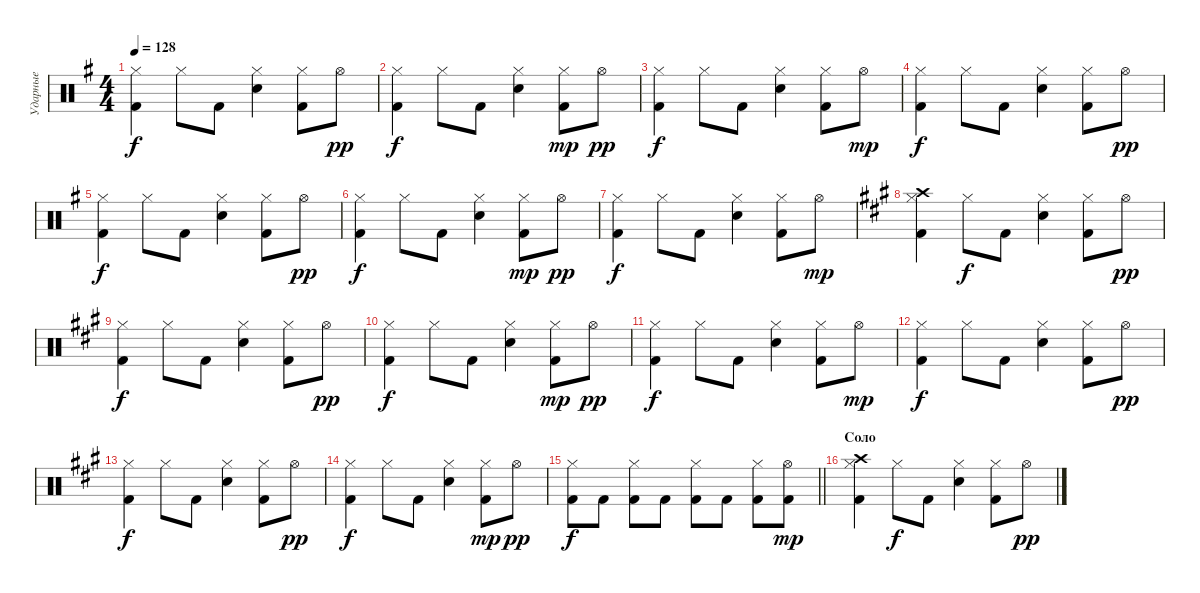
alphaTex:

\track ("Ударные" "Ударные") {instrument percussion}
\staff {score}
\articulation defaults
\ts (4 4)
\tempo 128
\clef neutral
\ks eminor
("Hi-Hat (closed)" "Kick (hit) 2").4{dy f} "Hi-Hat (closed)".8 "Kick (hit) 2".8 ("Snare (hit) 2" "Hi-Hat (closed)").4 ("Kick (hit) 2" "Hi-Hat (closed)").8 "Hi-Hat (open)".8{dy pp} |
("Hi-Hat (closed)" "Kick (hit) 2").4{dy f} "Hi-Hat (closed)".8 "Kick (hit) 2".8 ("Snare (hit) 2" "Hi-Hat (closed)").4 ("Kick (hit) 2" "Hi-Hat (closed)").8{dy mp} "Hi-Hat (open)".8{dy pp} |
("Hi-Hat (closed)" "Kick (hit) 2").4{dy f} "Hi-Hat (closed)".8 "Kick (hit) 2".8 ("Snare (hit) 2" "Hi-Hat (closed)").4 ("Kick (hit) 2" "Hi-Hat (closed)").8 "Hi-Hat (open)".8{dy mp} |
("Hi-Hat (closed)" "Kick (hit) 2").4{dy f} "Hi-Hat (closed)".8 "Kick (hit) 2".8 ("Snare (hit) 2" "Hi-Hat (closed)").4 ("Kick (hit) 2" "Hi-Hat (closed)").8 "Hi-Hat (open)".8{dy pp} |
("Hi-Hat (closed)" "Kick (hit) 2").4{dy f} "Hi-Hat (closed)".8 "Kick (hit) 2".8 ("Snare (hit) 2" "Hi-Hat (closed)").4 ("Kick (hit) 2" "Hi-Hat (closed)").8 "Hi-Hat (open)".8{dy pp} |
("Hi-Hat (closed)" "Kick (hit) 2").4{dy f} "Hi-Hat (closed)".8 "Kick (hit) 2".8 ("Snare (hit) 2" "Hi-Hat (closed)").4 ("Kick (hit) 2" "Hi-Hat (closed)").8{dy mp} "Hi-Hat (open)".8{dy pp} |
("Hi-Hat (closed)" "Kick (hit) 2").4{dy f} "Hi-Hat (closed)".8 "Kick (hit) 2".8 ("Snare (hit) 2" "Hi-Hat (closed)").4 ("Kick (hit) 2" "Hi-Hat (closed)").8 "Hi-Hat (open)".8{dy mp} |
\ks f#minor
("Hi-Hat (closed)" "Kick (hit) 2" "Crash high (hit)").4 "Hi-Hat (closed)".8{dy f} "Kick (hit) 2".8 ("Snare (hit) 2" "Hi-Hat (closed)").4 ("Kick (hit) 2" "Hi-Hat (closed)").8 "Hi-Hat (open)".8{dy pp} |
("Hi-Hat (closed)" "Kick (hit) 2").4{dy f} "Hi-Hat (closed)".8 "Kick (hit) 2".8 ("Snare (hit) 2" "Hi-Hat (closed)").4 ("Kick (hit) 2" "Hi-Hat (closed)").8 "Hi-Hat (open)".8{dy pp} |
("Hi-Hat (closed)" "Kick (hit) 2").4{dy f} "Hi-Hat (closed)".8 "Kick (hit) 2".8 ("Snare (hit) 2" "Hi-Hat (closed)").4 ("Kick (hit) 2" "Hi-Hat (closed)").8{dy mp} "Hi-Hat (open)".8{dy pp} |
("Hi-Hat (closed)" "Kick (hit) 2").4{dy f} "Hi-Hat (closed)".8 "Kick (hit) 2".8 ("Snare (hit) 2" "Hi-Hat (closed)").4 ("Kick (hit) 2" "Hi-Hat (closed)").8 "Hi-Hat (open)".8{dy mp} |
("Hi-Hat (closed)" "Kick (hit) 2").4{dy f} "Hi-Hat (closed)".8 "Kick (hit) 2".8 ("Snare (hit) 2" "Hi-Hat (closed)").4 ("Kick (hit) 2" "Hi-Hat (closed)").8 "Hi-Hat (open)".8{dy pp} |
("Hi-Hat (closed)" "Kick (hit) 2").4{dy f} "Hi-Hat (closed)".8 "Kick (hit) 2".8 ("Snare (hit) 2" "Hi-Hat (closed)").4 ("Kick (hit) 2" "Hi-Hat (closed)").8 "Hi-Hat (open)".8{dy pp} |
("Hi-Hat (closed)" "Kick (hit) 2").4{dy f} "Hi-Hat (closed)".8 "Kick (hit) 2".8 ("Snare (hit) 2" "Hi-Hat (closed)").4 ("Kick (hit) 2" "Hi-Hat (closed)").8{dy mp} "Hi-Hat (open)".8{dy pp} |
\barLineRight lightlight
("Hi-Hat (closed)" "Kick (hit) 2").8{dy f} "Kick (hit) 2".8 ("Hi-Hat (closed)" "Kick (hit) 2").8 "Kick (hit) 2".8 ("Kick (hit) 2" "Hi-Hat (closed)").8 "Kick (hit) 2".8 ("Kick (hit) 2" "Hi-Hat (closed)").8 ("Hi-Hat (open)" "Kick (hit) 2").8{dy mp} |
\section ("" "Соло")
("Hi-Hat (closed)" "Kick (hit) 2" "Crash high (hit)").4 "Hi-Hat (closed)".8{dy f} "Kick (hit) 2".8 ("Snare (hit) 2" "Hi-Hat (closed)").4 ("Kick (hit) 2" "Hi-Hat (closed)").8 "Hi-Hat (open)".8{dy pp}
